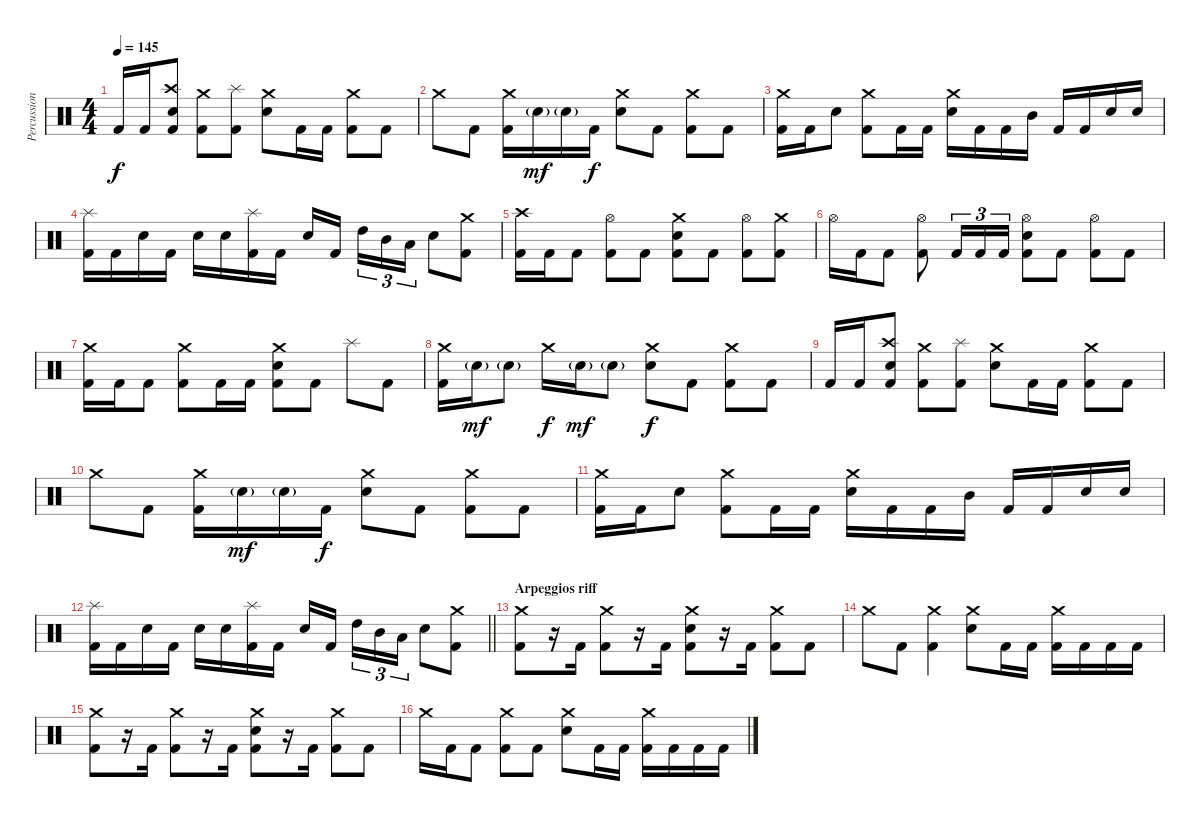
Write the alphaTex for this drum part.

\track ("Percussions" "Percussion") {instrument percussion}
\staff {score}
\articulation defaults
\ts (4 4)
\tempo 145
\clef neutral
\ks c "Kick (hit) 2".16{dy f} "Kick (hit) 2".16
("Crash high (hit)" "Electric Snare (hit)" "Kick (hit) 2").8 ("Crash medium (hit)" "Kick (hit) 2").8 ("Splash (hit)" "Kick (hit) 2").8 ("Crash medium (hit)" "Electric Snare (hit)").8 "Kick (hit) 2".16 "Kick (hit) 2".16 ("Crash medium (hit)" "Kick (hit) 2").8 "Kick (hit) 2".8 |
"Crash medium (hit)".8 "Kick (hit) 2".8 ("Crash medium (hit)" "Kick (hit) 2").16 "Electric Snare (hit)"{g}.16{dy mf} "Electric Snare (hit)"{g}.16 "Kick (hit) 2".16{dy f} ("Crash medium (hit)" "Electric Snare (hit)").8 "Kick (hit) 2".8 ("Crash medium (hit)" "Kick (hit) 2").8 "Kick (hit) 2".8 |
("Crash medium (hit)" "Kick (hit) 2").16 "Kick (hit) 2".16 "Electric Snare (hit)".8 ("Crash medium (hit)" "Kick (hit) 2").8 "Kick (hit) 2".16 "Kick (hit) 2".16 ("Crash medium (hit)" "Electric Snare (hit)").16 "Kick (hit) 2".16 "Kick (hit) 2".16 "Mid Tom (hit)".16 "Kick (hit) 2".16 "Kick (hit) 2".16 "Electric Snare (hit)".16 "Electric Snare (hit)".16 |
("Splash (hit)" "Kick (hit) 2").16 "Kick (hit) 2".16 "Electric Snare (hit)".16 "Kick (hit) 2".16 "Electric Snare (hit)".16 "Electric Snare (hit)".16 ("Splash (hit)" "Kick (hit) 2").16 "Kick (hit) 2".16 "Electric Snare (hit)".16 "Kick (hit) 2".16{beam splitsecondary} "High Tom (hit)".16{tu (3 2)} "Mid Tom (hit)".16{tu (3 2)} "Low Tom (hit)".16{tu (3 2)} "Electric Snare (hit)".8 ("Crash medium (hit)" "Kick (hit) 2").8 |
("Crash high (hit)" "Kick (hit) 2").16 "Kick (hit) 2".16 "Kick (hit) 2".8 ("Hi-Hat (open)" "Kick (hit) 2").8 "Kick (hit) 2".8 ("Crash medium (hit)" "Electric Snare (hit)" "Kick (hit) 2").8 "Kick (hit) 2".8 ("Hi-Hat (open)" "Kick (hit) 2").8 ("Crash medium (hit)" "Kick (hit) 2").8 |
"Hi-Hat (open)".16 "Kick (hit) 2".16 "Kick (hit) 2".8 ("Hi-Hat (open)" "Kick (hit) 2").8 "Kick (hit) 2".16{tu (3 2)} "Kick (hit) 2".16{tu (3 2)} "Kick (hit) 2".16{tu (3 2)} ("Hi-Hat (open)" "Electric Snare (hit)" "Kick (hit) 2").8 "Kick (hit) 2".8 ("Hi-Hat (open)" "Kick (hit) 2").8 "Kick (hit) 2".8 |
("Crash medium (hit)" "Kick (hit) 2").16 "Kick (hit) 2".16 "Kick (hit) 2".8 ("Crash medium (hit)" "Kick (hit) 2").8 "Kick (hit) 2".16 "Kick (hit) 2".16 ("Crash medium (hit)" "Electric Snare (hit)" "Kick (hit) 2").8 "Kick (hit) 2".8 "Splash (hit)".8 "Kick (hit) 2".8 |
("Crash medium (hit)" "Kick (hit) 2").16 "Electric Snare (hit)"{g}.16{dy mf} "Electric Snare (hit)"{g}.8 "Crash medium (hit)".16{dy f} "Electric Snare (hit)"{g}.16{dy mf} "Electric Snare (hit)"{g}.8 ("Crash medium (hit)" "Electric Snare (hit)").8{dy f} "Kick (hit) 2".8 ("Crash medium (hit)" "Kick (hit) 2").8 "Kick (hit) 2".8 |
"Kick (hit) 2".16 "Kick (hit) 2".16 ("Crash high (hit)" "Electric Snare (hit)" "Kick (hit) 2").8 ("Crash medium (hit)" "Kick (hit) 2").8 ("Splash (hit)" "Kick (hit) 2").8 ("Crash medium (hit)" "Electric Snare (hit)").8 "Kick (hit) 2".16 "Kick (hit) 2".16 ("Crash medium (hit)" "Kick (hit) 2").8 "Kick (hit) 2".8 |
"Crash medium (hit)".8 "Kick (hit) 2".8 ("Crash medium (hit)" "Kick (hit) 2").16 "Electric Snare (hit)"{g}.16{dy mf} "Electric Snare (hit)"{g}.16 "Kick (hit) 2".16{dy f} ("Crash medium (hit)" "Electric Snare (hit)").8 "Kick (hit) 2".8 ("Crash medium (hit)" "Kick (hit) 2").8 "Kick (hit) 2".8 |
("Crash medium (hit)" "Kick (hit) 2").16 "Kick (hit) 2".16 "Electric Snare (hit)".8 ("Crash medium (hit)" "Kick (hit) 2").8 "Kick (hit) 2".16 "Kick (hit) 2".16 ("Crash medium (hit)" "Electric Snare (hit)").16 "Kick (hit) 2".16 "Kick (hit) 2".16 "Mid Tom (hit)".16 "Kick (hit) 2".16 "Kick (hit) 2".16 "Electric Snare (hit)".16 "Electric Snare (hit)".16 |
\barLineRight lightlight
("Splash (hit)" "Kick (hit) 2").16 "Kick (hit) 2".16 "Electric Snare (hit)".16 "Kick (hit) 2".16 "Electric Snare (hit)".16 "Electric Snare (hit)".16 ("Splash (hit)" "Kick (hit) 2").16 "Kick (hit) 2".16 "Electric Snare (hit)".16 "Kick (hit) 2".16{beam splitsecondary} "High Tom (hit)".16{tu (3 2)} "Mid Tom (hit)".16{tu (3 2)} "Low Tom (hit)".16{tu (3 2)} "Electric Snare (hit)".8 ("Crash medium (hit)" "Kick (hit) 2").8 |
\section ("" "Arpeggios riff")
("Crash medium (hit)" "Kick (hit) 2").8 r.16 "Kick (hit) 2".16 ("Crash medium (hit)" "Kick (hit) 2").8 r.16 "Kick (hit) 2".16 ("Crash medium (hit)" "Electric Snare (hit)" "Kick (hit) 2").8 r.16 "Kick (hit) 2".16 ("Crash medium (hit)" "Kick (hit) 2").8 "Kick (hit) 2".8 |
"Crash medium (hit)".8 "Kick (hit) 2".8 ("Crash medium (hit)" "Kick (hit) 2").4 ("Crash medium (hit)" "Electric Snare (hit)").8 "Kick (hit) 2".16 "Kick (hit) 2".16 ("Crash medium (hit)" "Kick (hit) 2").16 "Kick (hit) 2".16 "Kick (hit) 2".16 "Kick (hit) 2".16 |
("Crash medium (hit)" "Kick (hit) 2").8 r.16 "Kick (hit) 2".16 ("Crash medium (hit)" "Kick (hit) 2").8 r.16 "Kick (hit) 2".16 ("Crash medium (hit)" "Electric Snare (hit)" "Kick (hit) 2").8 r.16 "Kick (hit) 2".16 ("Crash medium (hit)" "Kick (hit) 2").8 "Kick (hit) 2".8 |
"Crash medium (hit)".16 "Kick (hit) 2".16 "Kick (hit) 2".8 ("Crash medium (hit)" "Kick (hit) 2").8 "Kick (hit) 2".8 ("Crash medium (hit)" "Electric Snare (hit)").8 "Kick (hit) 2".16 "Kick (hit) 2".16 ("Crash medium (hit)" "Kick (hit) 2").16 "Kick (hit) 2".16 "Kick (hit) 2".16 "Kick (hit) 2".16
